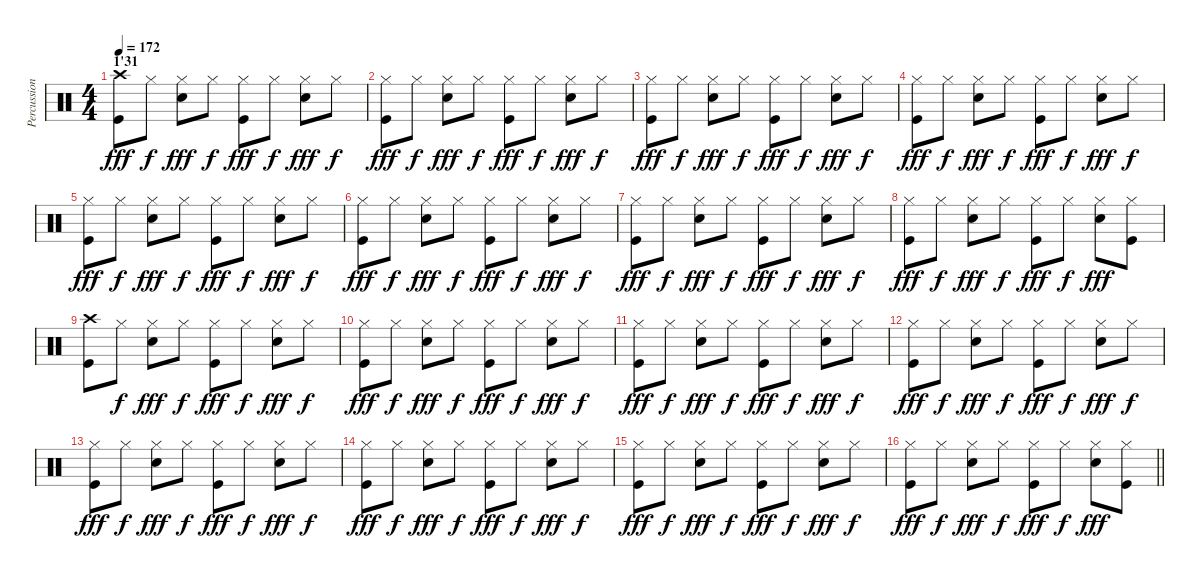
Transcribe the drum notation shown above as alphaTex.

\track ("Percussions" "Percussion") {instrument percussion}
\staff {score}
\articulation defaults
\ts (4 4)
\section ("" "1'31")
\tempo 172
\clef neutral
\ks c
("Crash high (hit)" "Kick (hit)").8{dy fff} "Hi-Hat (closed)".8{dy f} ("Hi-Hat (closed)" "Snare (hit) 2").8{dy fff} "Hi-Hat (closed)".8{dy f} ("Hi-Hat (closed)" "Kick (hit)").8{dy fff} "Hi-Hat (closed)".8{dy f} ("Hi-Hat (closed)" "Snare (hit) 2").8{dy fff} "Hi-Hat (closed)".8{dy f} |
("Hi-Hat (closed)" "Kick (hit)").8{dy fff} "Hi-Hat (closed)".8{dy f} ("Hi-Hat (closed)" "Snare (hit) 2").8{dy fff} "Hi-Hat (closed)".8{dy f} ("Hi-Hat (closed)" "Kick (hit)").8{dy fff} "Hi-Hat (closed)".8{dy f} ("Hi-Hat (closed)" "Snare (hit) 2").8{dy fff} "Hi-Hat (closed)".8{dy f} |
("Hi-Hat (closed)" "Kick (hit)").8{dy fff} "Hi-Hat (closed)".8{dy f} ("Hi-Hat (closed)" "Snare (hit) 2").8{dy fff} "Hi-Hat (closed)".8{dy f} ("Hi-Hat (closed)" "Kick (hit)").8{dy fff} "Hi-Hat (closed)".8{dy f} ("Hi-Hat (closed)" "Snare (hit) 2").8{dy fff} "Hi-Hat (closed)".8{dy f} |
("Hi-Hat (closed)" "Kick (hit)").8{dy fff} "Hi-Hat (closed)".8{dy f} ("Hi-Hat (closed)" "Snare (hit) 2").8{dy fff} "Hi-Hat (closed)".8{dy f} ("Hi-Hat (closed)" "Kick (hit)").8{dy fff} "Hi-Hat (closed)".8{dy f} ("Hi-Hat (closed)" "Snare (hit) 2").8{dy fff} "Hi-Hat (closed)".8{dy f} |
("Hi-Hat (closed)" "Kick (hit)").8{dy fff} "Hi-Hat (closed)".8{dy f} ("Hi-Hat (closed)" "Snare (hit) 2").8{dy fff} "Hi-Hat (closed)".8{dy f} ("Hi-Hat (closed)" "Kick (hit)").8{dy fff} "Hi-Hat (closed)".8{dy f} ("Hi-Hat (closed)" "Snare (hit) 2").8{dy fff} "Hi-Hat (closed)".8{dy f} |
("Hi-Hat (closed)" "Kick (hit)").8{dy fff} "Hi-Hat (closed)".8{dy f} ("Hi-Hat (closed)" "Snare (hit) 2").8{dy fff} "Hi-Hat (closed)".8{dy f} ("Hi-Hat (closed)" "Kick (hit)").8{dy fff} "Hi-Hat (closed)".8{dy f} ("Hi-Hat (closed)" "Snare (hit) 2").8{dy fff} "Hi-Hat (closed)".8{dy f} |
("Hi-Hat (closed)" "Kick (hit)").8{dy fff} "Hi-Hat (closed)".8{dy f} ("Hi-Hat (closed)" "Snare (hit) 2").8{dy fff} "Hi-Hat (closed)".8{dy f} ("Hi-Hat (closed)" "Kick (hit)").8{dy fff} "Hi-Hat (closed)".8{dy f} ("Hi-Hat (closed)" "Snare (hit) 2").8{dy fff} "Hi-Hat (closed)".8{dy f} |
("Hi-Hat (closed)" "Kick (hit)").8{dy fff} "Hi-Hat (closed)".8{dy f} ("Hi-Hat (closed)" "Snare (hit) 2").8{dy fff} "Hi-Hat (closed)".8{dy f} ("Hi-Hat (closed)" "Kick (hit)").8{dy fff} "Hi-Hat (closed)".8{dy f} ("Hi-Hat (closed)" "Snare (hit) 2").8{dy fff} ("Hi-Hat (closed)" "Kick (hit)").8 |
("Crash high (hit)" "Kick (hit)").8 "Hi-Hat (closed)".8{dy f} ("Hi-Hat (closed)" "Snare (hit) 2").8{dy fff} "Hi-Hat (closed)".8{dy f} ("Hi-Hat (closed)" "Kick (hit)").8{dy fff} "Hi-Hat (closed)".8{dy f} ("Hi-Hat (closed)" "Snare (hit) 2").8{dy fff} "Hi-Hat (closed)".8{dy f} |
("Hi-Hat (closed)" "Kick (hit)").8{dy fff} "Hi-Hat (closed)".8{dy f} ("Hi-Hat (closed)" "Snare (hit) 2").8{dy fff} "Hi-Hat (closed)".8{dy f} ("Hi-Hat (closed)" "Kick (hit)").8{dy fff} "Hi-Hat (closed)".8{dy f} ("Hi-Hat (closed)" "Snare (hit) 2").8{dy fff} "Hi-Hat (closed)".8{dy f} |
("Hi-Hat (closed)" "Kick (hit)").8{dy fff} "Hi-Hat (closed)".8{dy f} ("Hi-Hat (closed)" "Snare (hit) 2").8{dy fff} "Hi-Hat (closed)".8{dy f} ("Hi-Hat (closed)" "Kick (hit)").8{dy fff} "Hi-Hat (closed)".8{dy f} ("Hi-Hat (closed)" "Snare (hit) 2").8{dy fff} "Hi-Hat (closed)".8{dy f} |
("Hi-Hat (closed)" "Kick (hit)").8{dy fff} "Hi-Hat (closed)".8{dy f} ("Hi-Hat (closed)" "Snare (hit) 2").8{dy fff} "Hi-Hat (closed)".8{dy f} ("Hi-Hat (closed)" "Kick (hit)").8{dy fff} "Hi-Hat (closed)".8{dy f} ("Hi-Hat (closed)" "Snare (hit) 2").8{dy fff} "Hi-Hat (closed)".8{dy f} |
("Hi-Hat (closed)" "Kick (hit)").8{dy fff} "Hi-Hat (closed)".8{dy f} ("Hi-Hat (closed)" "Snare (hit) 2").8{dy fff} "Hi-Hat (closed)".8{dy f} ("Hi-Hat (closed)" "Kick (hit)").8{dy fff} "Hi-Hat (closed)".8{dy f} ("Hi-Hat (closed)" "Snare (hit) 2").8{dy fff} "Hi-Hat (closed)".8{dy f} |
("Hi-Hat (closed)" "Kick (hit)").8{dy fff} "Hi-Hat (closed)".8{dy f} ("Hi-Hat (closed)" "Snare (hit) 2").8{dy fff} "Hi-Hat (closed)".8{dy f} ("Hi-Hat (closed)" "Kick (hit)").8{dy fff} "Hi-Hat (closed)".8{dy f} ("Hi-Hat (closed)" "Snare (hit) 2").8{dy fff} "Hi-Hat (closed)".8{dy f} |
("Hi-Hat (closed)" "Kick (hit)").8{dy fff} "Hi-Hat (closed)".8{dy f} ("Hi-Hat (closed)" "Snare (hit) 2").8{dy fff} "Hi-Hat (closed)".8{dy f} ("Hi-Hat (closed)" "Kick (hit)").8{dy fff} "Hi-Hat (closed)".8{dy f} ("Hi-Hat (closed)" "Snare (hit) 2").8{dy fff} "Hi-Hat (closed)".8{dy f} |
\barLineRight lightlight
("Hi-Hat (closed)" "Kick (hit)").8{dy fff} "Hi-Hat (closed)".8{dy f} ("Hi-Hat (closed)" "Snare (hit) 2").8{dy fff} "Hi-Hat (closed)".8{dy f} ("Hi-Hat (closed)" "Kick (hit)").8{dy fff} "Hi-Hat (closed)".8{dy f} ("Hi-Hat (closed)" "Snare (hit) 2").8{dy fff} ("Hi-Hat (closed)" "Kick (hit)").8
